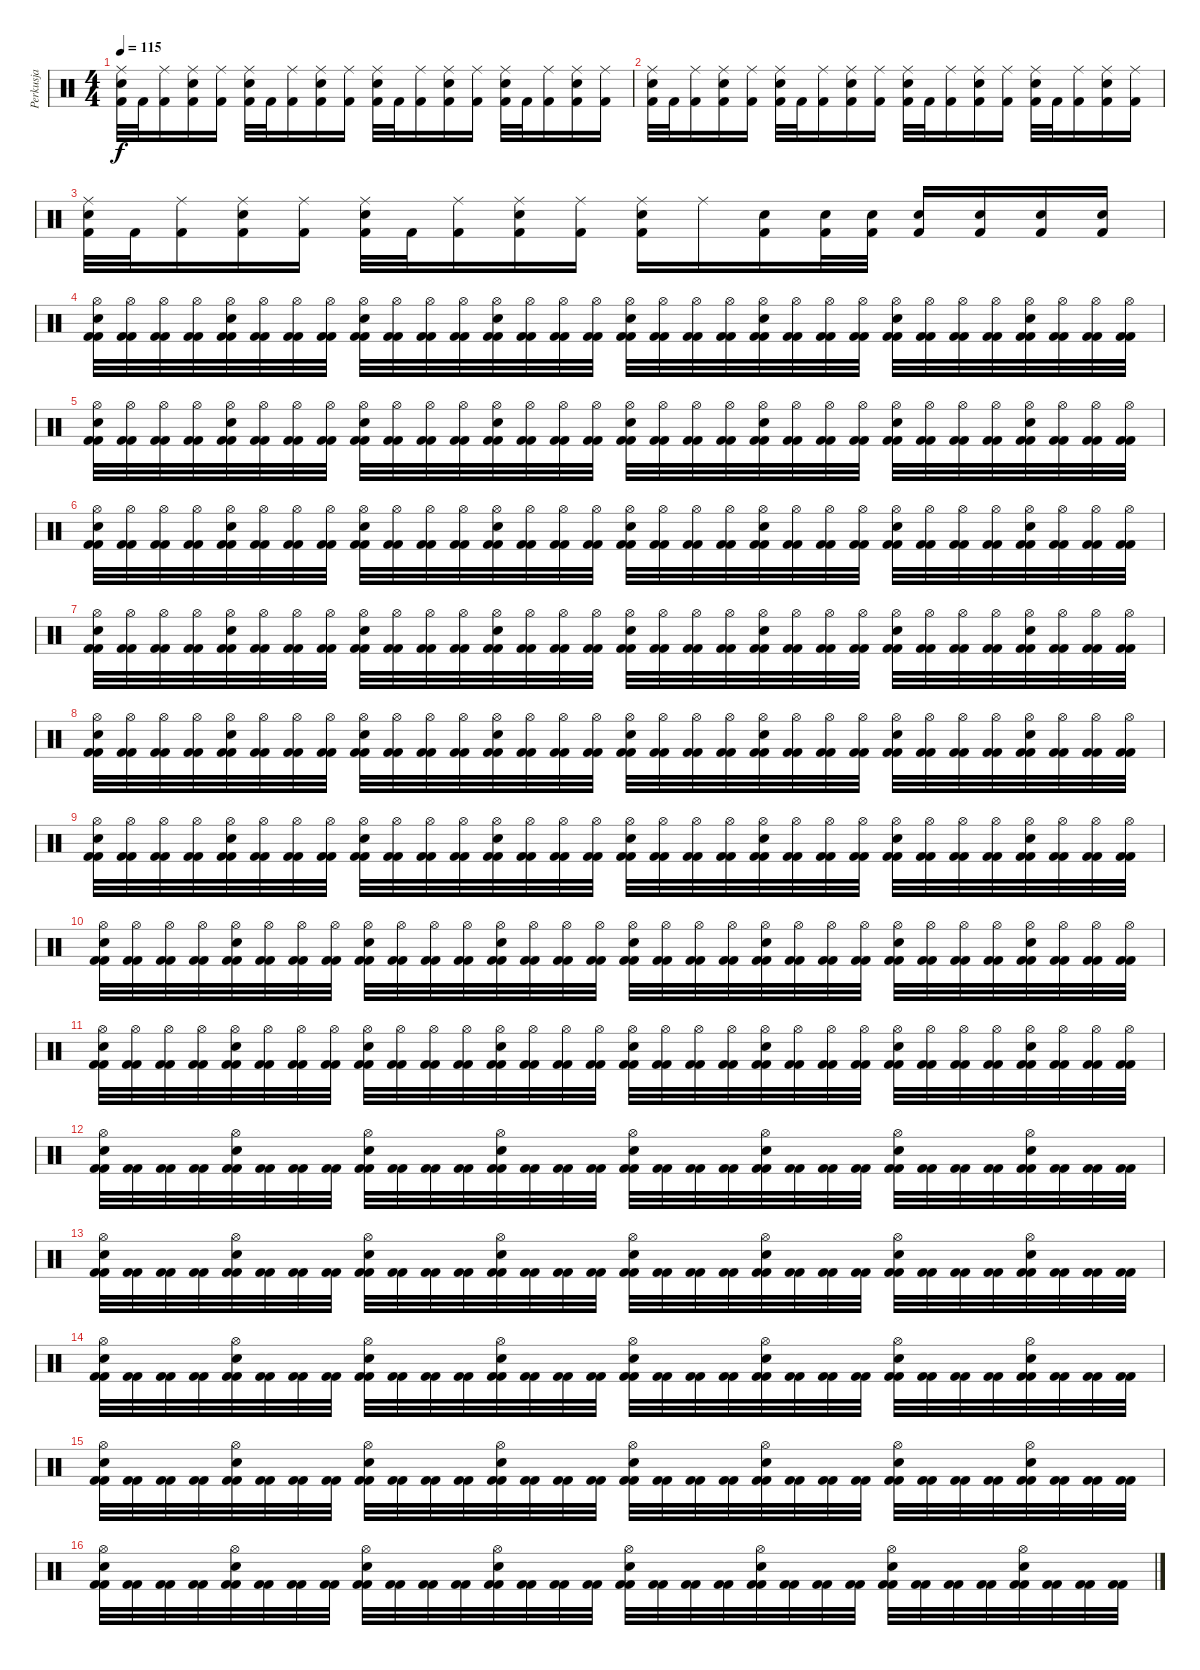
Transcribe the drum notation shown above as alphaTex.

\track ("Perkusja" "Perkusja") {instrument percussion}
\staff {score}
\articulation defaults
\ts (4 4)
\tempo 115
\clef neutral
\ks c
("Ride (middle)" "Electric Snare (hit)" "Kick (hit) 2").32{dy f} "Kick (hit) 2".32 ("Ride (middle)" "Kick (hit) 2").16 ("Ride (middle)" "Electric Snare (hit)" "Kick (hit) 2").16 ("Ride (middle)" "Kick (hit) 2").16 ("Ride (middle)" "Electric Snare (hit)" "Kick (hit) 2").32 "Kick (hit) 2".32 ("Ride (middle)" "Kick (hit) 2").16 ("Ride (middle)" "Electric Snare (hit)" "Kick (hit) 2").16 ("Ride (middle)" "Kick (hit) 2").16 ("Ride (middle)" "Electric Snare (hit)" "Kick (hit) 2").32 "Kick (hit) 2".32 ("Ride (middle)" "Kick (hit) 2").16 ("Ride (middle)" "Electric Snare (hit)" "Kick (hit) 2").16 ("Ride (middle)" "Kick (hit) 2").16 ("Ride (middle)" "Electric Snare (hit)" "Kick (hit) 2").32 "Kick (hit) 2".32 ("Ride (middle)" "Kick (hit) 2").16 ("Ride (middle)" "Electric Snare (hit)" "Kick (hit) 2").16 ("Ride (middle)" "Kick (hit) 2").16 |
("Ride (middle)" "Electric Snare (hit)" "Kick (hit) 2").32 "Kick (hit) 2".32 ("Ride (middle)" "Kick (hit) 2").16 ("Ride (middle)" "Electric Snare (hit)" "Kick (hit) 2").16 ("Ride (middle)" "Kick (hit) 2").16 ("Ride (middle)" "Electric Snare (hit)" "Kick (hit) 2").32 "Kick (hit) 2".32 ("Ride (middle)" "Kick (hit) 2").16 ("Ride (middle)" "Electric Snare (hit)" "Kick (hit) 2").16 ("Ride (middle)" "Kick (hit) 2").16 ("Ride (middle)" "Electric Snare (hit)" "Kick (hit) 2").32 "Kick (hit) 2".32 ("Ride (middle)" "Kick (hit) 2").16 ("Ride (middle)" "Electric Snare (hit)" "Kick (hit) 2").16 ("Ride (middle)" "Kick (hit) 2").16 ("Ride (middle)" "Electric Snare (hit)" "Kick (hit) 2").32 "Kick (hit) 2".32 ("Ride (middle)" "Kick (hit) 2").16 ("Ride (middle)" "Electric Snare (hit)" "Kick (hit) 2").16 ("Ride (middle)" "Kick (hit) 2").16 |
("Ride (middle)" "Electric Snare (hit)" "Kick (hit) 2").32 "Kick (hit) 2".32 ("Ride (middle)" "Kick (hit) 2").16 ("Ride (middle)" "Electric Snare (hit)" "Kick (hit) 2").16 ("Ride (middle)" "Kick (hit) 2").16 ("Ride (middle)" "Electric Snare (hit)" "Kick (hit) 2").32 "Kick (hit) 2".32 ("Ride (middle)" "Kick (hit) 2").16 ("Ride (middle)" "Electric Snare (hit)" "Kick (hit) 2").16 ("Ride (middle)" "Kick (hit) 2").16 ("Ride (middle)" "Electric Snare (hit)" "Kick (hit) 2").16 "Ride (middle)".16 ("Electric Snare (hit)" "Kick (hit) 2").16 ("Electric Snare (hit)" "Kick (hit) 2").32 ("Electric Snare (hit)" "Kick (hit) 2").32 ("Electric Snare (hit)" "Kick (hit) 2").16 ("Electric Snare (hit)" "Kick (hit) 2").16 ("Electric Snare (hit)" "Kick (hit) 2").16 ("Electric Snare (hit)" "Kick (hit) 2").16 |
("Hi-Hat (open)" "Electric Snare (hit)" "Kick (hit) 2" "Kick (hit) 2").32 ("Hi-Hat (open)" "Kick (hit) 2" "Kick (hit) 2").32 ("Hi-Hat (open)" "Kick (hit) 2" "Kick (hit) 2").32 ("Hi-Hat (open)" "Kick (hit) 2" "Kick (hit) 2").32 ("Hi-Hat (open)" "Electric Snare (hit)" "Kick (hit) 2" "Kick (hit) 2").32 ("Hi-Hat (open)" "Kick (hit) 2" "Kick (hit) 2").32 ("Hi-Hat (open)" "Kick (hit) 2" "Kick (hit) 2").32 ("Hi-Hat (open)" "Kick (hit) 2" "Kick (hit) 2").32 ("Hi-Hat (open)" "Electric Snare (hit)" "Kick (hit) 2" "Kick (hit) 2").32 ("Hi-Hat (open)" "Kick (hit) 2" "Kick (hit) 2").32 ("Hi-Hat (open)" "Kick (hit) 2" "Kick (hit) 2").32 ("Hi-Hat (open)" "Kick (hit) 2" "Kick (hit) 2").32 ("Hi-Hat (open)" "Electric Snare (hit)" "Kick (hit) 2" "Kick (hit) 2").32 ("Hi-Hat (open)" "Kick (hit) 2" "Kick (hit) 2").32 ("Hi-Hat (open)" "Kick (hit) 2" "Kick (hit) 2").32 ("Hi-Hat (open)" "Kick (hit) 2" "Kick (hit) 2").32 ("Hi-Hat (open)" "Electric Snare (hit)" "Kick (hit) 2" "Kick (hit) 2").32 ("Hi-Hat (open)" "Kick (hit) 2" "Kick (hit) 2").32 ("Hi-Hat (open)" "Kick (hit) 2" "Kick (hit) 2").32 ("Hi-Hat (open)" "Kick (hit) 2" "Kick (hit) 2").32 ("Hi-Hat (open)" "Electric Snare (hit)" "Kick (hit) 2" "Kick (hit) 2").32 ("Hi-Hat (open)" "Kick (hit) 2" "Kick (hit) 2").32 ("Hi-Hat (open)" "Kick (hit) 2" "Kick (hit) 2").32 ("Hi-Hat (open)" "Kick (hit) 2" "Kick (hit) 2").32 ("Hi-Hat (open)" "Electric Snare (hit)" "Kick (hit) 2" "Kick (hit) 2").32 ("Hi-Hat (open)" "Kick (hit) 2" "Kick (hit) 2").32 ("Hi-Hat (open)" "Kick (hit) 2" "Kick (hit) 2").32 ("Hi-Hat (open)" "Kick (hit) 2" "Kick (hit) 2").32 ("Hi-Hat (open)" "Electric Snare (hit)" "Kick (hit) 2" "Kick (hit) 2").32 ("Hi-Hat (open)" "Kick (hit) 2" "Kick (hit) 2").32 ("Hi-Hat (open)" "Kick (hit) 2" "Kick (hit) 2").32 ("Hi-Hat (open)" "Kick (hit) 2" "Kick (hit) 2").32 |
("Hi-Hat (open)" "Electric Snare (hit)" "Kick (hit) 2" "Kick (hit) 2").32 ("Hi-Hat (open)" "Kick (hit) 2" "Kick (hit) 2").32 ("Hi-Hat (open)" "Kick (hit) 2" "Kick (hit) 2").32 ("Hi-Hat (open)" "Kick (hit) 2" "Kick (hit) 2").32 ("Hi-Hat (open)" "Electric Snare (hit)" "Kick (hit) 2" "Kick (hit) 2").32 ("Hi-Hat (open)" "Kick (hit) 2" "Kick (hit) 2").32 ("Hi-Hat (open)" "Kick (hit) 2" "Kick (hit) 2").32 ("Hi-Hat (open)" "Kick (hit) 2" "Kick (hit) 2").32 ("Hi-Hat (open)" "Electric Snare (hit)" "Kick (hit) 2" "Kick (hit) 2").32 ("Hi-Hat (open)" "Kick (hit) 2" "Kick (hit) 2").32 ("Hi-Hat (open)" "Kick (hit) 2" "Kick (hit) 2").32 ("Hi-Hat (open)" "Kick (hit) 2" "Kick (hit) 2").32 ("Hi-Hat (open)" "Electric Snare (hit)" "Kick (hit) 2" "Kick (hit) 2").32 ("Hi-Hat (open)" "Kick (hit) 2" "Kick (hit) 2").32 ("Hi-Hat (open)" "Kick (hit) 2" "Kick (hit) 2").32 ("Hi-Hat (open)" "Kick (hit) 2" "Kick (hit) 2").32 ("Hi-Hat (open)" "Electric Snare (hit)" "Kick (hit) 2" "Kick (hit) 2").32 ("Hi-Hat (open)" "Kick (hit) 2" "Kick (hit) 2").32 ("Hi-Hat (open)" "Kick (hit) 2" "Kick (hit) 2").32 ("Hi-Hat (open)" "Kick (hit) 2" "Kick (hit) 2").32 ("Hi-Hat (open)" "Electric Snare (hit)" "Kick (hit) 2" "Kick (hit) 2").32 ("Hi-Hat (open)" "Kick (hit) 2" "Kick (hit) 2").32 ("Hi-Hat (open)" "Kick (hit) 2" "Kick (hit) 2").32 ("Hi-Hat (open)" "Kick (hit) 2" "Kick (hit) 2").32 ("Hi-Hat (open)" "Electric Snare (hit)" "Kick (hit) 2" "Kick (hit) 2").32 ("Hi-Hat (open)" "Kick (hit) 2" "Kick (hit) 2").32 ("Hi-Hat (open)" "Kick (hit) 2" "Kick (hit) 2").32 ("Hi-Hat (open)" "Kick (hit) 2" "Kick (hit) 2").32 ("Hi-Hat (open)" "Electric Snare (hit)" "Kick (hit) 2" "Kick (hit) 2").32 ("Hi-Hat (open)" "Kick (hit) 2" "Kick (hit) 2").32 ("Hi-Hat (open)" "Kick (hit) 2" "Kick (hit) 2").32 ("Hi-Hat (open)" "Kick (hit) 2" "Kick (hit) 2").32 |
("Hi-Hat (open)" "Electric Snare (hit)" "Kick (hit) 2" "Kick (hit) 2").32 ("Hi-Hat (open)" "Kick (hit) 2" "Kick (hit) 2").32 ("Hi-Hat (open)" "Kick (hit) 2" "Kick (hit) 2").32 ("Hi-Hat (open)" "Kick (hit) 2" "Kick (hit) 2").32 ("Hi-Hat (open)" "Electric Snare (hit)" "Kick (hit) 2" "Kick (hit) 2").32 ("Hi-Hat (open)" "Kick (hit) 2" "Kick (hit) 2").32 ("Hi-Hat (open)" "Kick (hit) 2" "Kick (hit) 2").32 ("Hi-Hat (open)" "Kick (hit) 2" "Kick (hit) 2").32 ("Hi-Hat (open)" "Electric Snare (hit)" "Kick (hit) 2" "Kick (hit) 2").32 ("Hi-Hat (open)" "Kick (hit) 2" "Kick (hit) 2").32 ("Hi-Hat (open)" "Kick (hit) 2" "Kick (hit) 2").32 ("Hi-Hat (open)" "Kick (hit) 2" "Kick (hit) 2").32 ("Hi-Hat (open)" "Electric Snare (hit)" "Kick (hit) 2" "Kick (hit) 2").32 ("Hi-Hat (open)" "Kick (hit) 2" "Kick (hit) 2").32 ("Hi-Hat (open)" "Kick (hit) 2" "Kick (hit) 2").32 ("Hi-Hat (open)" "Kick (hit) 2" "Kick (hit) 2").32 ("Hi-Hat (open)" "Electric Snare (hit)" "Kick (hit) 2" "Kick (hit) 2").32 ("Hi-Hat (open)" "Kick (hit) 2" "Kick (hit) 2").32 ("Hi-Hat (open)" "Kick (hit) 2" "Kick (hit) 2").32 ("Hi-Hat (open)" "Kick (hit) 2" "Kick (hit) 2").32 ("Hi-Hat (open)" "Electric Snare (hit)" "Kick (hit) 2" "Kick (hit) 2").32 ("Hi-Hat (open)" "Kick (hit) 2" "Kick (hit) 2").32 ("Hi-Hat (open)" "Kick (hit) 2" "Kick (hit) 2").32 ("Hi-Hat (open)" "Kick (hit) 2" "Kick (hit) 2").32 ("Hi-Hat (open)" "Electric Snare (hit)" "Kick (hit) 2" "Kick (hit) 2").32 ("Hi-Hat (open)" "Kick (hit) 2" "Kick (hit) 2").32 ("Hi-Hat (open)" "Kick (hit) 2" "Kick (hit) 2").32 ("Hi-Hat (open)" "Kick (hit) 2" "Kick (hit) 2").32 ("Hi-Hat (open)" "Electric Snare (hit)" "Kick (hit) 2" "Kick (hit) 2").32 ("Hi-Hat (open)" "Kick (hit) 2" "Kick (hit) 2").32 ("Hi-Hat (open)" "Kick (hit) 2" "Kick (hit) 2").32 ("Hi-Hat (open)" "Kick (hit) 2" "Kick (hit) 2").32 |
("Hi-Hat (open)" "Electric Snare (hit)" "Kick (hit) 2" "Kick (hit) 2").32 ("Hi-Hat (open)" "Kick (hit) 2" "Kick (hit) 2").32 ("Hi-Hat (open)" "Kick (hit) 2" "Kick (hit) 2").32 ("Hi-Hat (open)" "Kick (hit) 2" "Kick (hit) 2").32 ("Hi-Hat (open)" "Electric Snare (hit)" "Kick (hit) 2" "Kick (hit) 2").32 ("Hi-Hat (open)" "Kick (hit) 2" "Kick (hit) 2").32 ("Hi-Hat (open)" "Kick (hit) 2" "Kick (hit) 2").32 ("Hi-Hat (open)" "Kick (hit) 2" "Kick (hit) 2").32 ("Hi-Hat (open)" "Electric Snare (hit)" "Kick (hit) 2" "Kick (hit) 2").32 ("Hi-Hat (open)" "Kick (hit) 2" "Kick (hit) 2").32 ("Hi-Hat (open)" "Kick (hit) 2" "Kick (hit) 2").32 ("Hi-Hat (open)" "Kick (hit) 2" "Kick (hit) 2").32 ("Hi-Hat (open)" "Electric Snare (hit)" "Kick (hit) 2" "Kick (hit) 2").32 ("Hi-Hat (open)" "Kick (hit) 2" "Kick (hit) 2").32 ("Hi-Hat (open)" "Kick (hit) 2" "Kick (hit) 2").32 ("Hi-Hat (open)" "Kick (hit) 2" "Kick (hit) 2").32 ("Hi-Hat (open)" "Electric Snare (hit)" "Kick (hit) 2" "Kick (hit) 2").32 ("Hi-Hat (open)" "Kick (hit) 2" "Kick (hit) 2").32 ("Hi-Hat (open)" "Kick (hit) 2" "Kick (hit) 2").32 ("Hi-Hat (open)" "Kick (hit) 2" "Kick (hit) 2").32 ("Hi-Hat (open)" "Electric Snare (hit)" "Kick (hit) 2" "Kick (hit) 2").32 ("Hi-Hat (open)" "Kick (hit) 2" "Kick (hit) 2").32 ("Hi-Hat (open)" "Kick (hit) 2" "Kick (hit) 2").32 ("Hi-Hat (open)" "Kick (hit) 2" "Kick (hit) 2").32 ("Hi-Hat (open)" "Electric Snare (hit)" "Kick (hit) 2" "Kick (hit) 2").32 ("Hi-Hat (open)" "Kick (hit) 2" "Kick (hit) 2").32 ("Hi-Hat (open)" "Kick (hit) 2" "Kick (hit) 2").32 ("Hi-Hat (open)" "Kick (hit) 2" "Kick (hit) 2").32 ("Hi-Hat (open)" "Electric Snare (hit)" "Kick (hit) 2" "Kick (hit) 2").32 ("Hi-Hat (open)" "Kick (hit) 2" "Kick (hit) 2").32 ("Hi-Hat (open)" "Kick (hit) 2" "Kick (hit) 2").32 ("Hi-Hat (open)" "Kick (hit) 2" "Kick (hit) 2").32 |
("Hi-Hat (open)" "Electric Snare (hit)" "Kick (hit) 2" "Kick (hit) 2").32 ("Hi-Hat (open)" "Kick (hit) 2" "Kick (hit) 2").32 ("Hi-Hat (open)" "Kick (hit) 2" "Kick (hit) 2").32 ("Hi-Hat (open)" "Kick (hit) 2" "Kick (hit) 2").32 ("Hi-Hat (open)" "Electric Snare (hit)" "Kick (hit) 2" "Kick (hit) 2").32 ("Hi-Hat (open)" "Kick (hit) 2" "Kick (hit) 2").32 ("Hi-Hat (open)" "Kick (hit) 2" "Kick (hit) 2").32 ("Hi-Hat (open)" "Kick (hit) 2" "Kick (hit) 2").32 ("Hi-Hat (open)" "Electric Snare (hit)" "Kick (hit) 2" "Kick (hit) 2").32 ("Hi-Hat (open)" "Kick (hit) 2" "Kick (hit) 2").32 ("Hi-Hat (open)" "Kick (hit) 2" "Kick (hit) 2").32 ("Hi-Hat (open)" "Kick (hit) 2" "Kick (hit) 2").32 ("Hi-Hat (open)" "Electric Snare (hit)" "Kick (hit) 2" "Kick (hit) 2").32 ("Hi-Hat (open)" "Kick (hit) 2" "Kick (hit) 2").32 ("Hi-Hat (open)" "Kick (hit) 2" "Kick (hit) 2").32 ("Hi-Hat (open)" "Kick (hit) 2" "Kick (hit) 2").32 ("Hi-Hat (open)" "Electric Snare (hit)" "Kick (hit) 2" "Kick (hit) 2").32 ("Hi-Hat (open)" "Kick (hit) 2" "Kick (hit) 2").32 ("Hi-Hat (open)" "Kick (hit) 2" "Kick (hit) 2").32 ("Hi-Hat (open)" "Kick (hit) 2" "Kick (hit) 2").32 ("Hi-Hat (open)" "Electric Snare (hit)" "Kick (hit) 2" "Kick (hit) 2").32 ("Hi-Hat (open)" "Kick (hit) 2" "Kick (hit) 2").32 ("Hi-Hat (open)" "Kick (hit) 2" "Kick (hit) 2").32 ("Hi-Hat (open)" "Kick (hit) 2" "Kick (hit) 2").32 ("Hi-Hat (open)" "Electric Snare (hit)" "Kick (hit) 2" "Kick (hit) 2").32 ("Hi-Hat (open)" "Kick (hit) 2" "Kick (hit) 2").32 ("Hi-Hat (open)" "Kick (hit) 2" "Kick (hit) 2").32 ("Hi-Hat (open)" "Kick (hit) 2" "Kick (hit) 2").32 ("Hi-Hat (open)" "Electric Snare (hit)" "Kick (hit) 2" "Kick (hit) 2").32 ("Hi-Hat (open)" "Kick (hit) 2" "Kick (hit) 2").32 ("Hi-Hat (open)" "Kick (hit) 2" "Kick (hit) 2").32 ("Hi-Hat (open)" "Kick (hit) 2" "Kick (hit) 2").32 |
("Hi-Hat (open)" "Electric Snare (hit)" "Kick (hit) 2" "Kick (hit) 2").32 ("Hi-Hat (open)" "Kick (hit) 2" "Kick (hit) 2").32 ("Hi-Hat (open)" "Kick (hit) 2" "Kick (hit) 2").32 ("Hi-Hat (open)" "Kick (hit) 2" "Kick (hit) 2").32 ("Hi-Hat (open)" "Electric Snare (hit)" "Kick (hit) 2" "Kick (hit) 2").32 ("Hi-Hat (open)" "Kick (hit) 2" "Kick (hit) 2").32 ("Hi-Hat (open)" "Kick (hit) 2" "Kick (hit) 2").32 ("Hi-Hat (open)" "Kick (hit) 2" "Kick (hit) 2").32 ("Hi-Hat (open)" "Electric Snare (hit)" "Kick (hit) 2" "Kick (hit) 2").32 ("Hi-Hat (open)" "Kick (hit) 2" "Kick (hit) 2").32 ("Hi-Hat (open)" "Kick (hit) 2" "Kick (hit) 2").32 ("Hi-Hat (open)" "Kick (hit) 2" "Kick (hit) 2").32 ("Hi-Hat (open)" "Electric Snare (hit)" "Kick (hit) 2" "Kick (hit) 2").32 ("Hi-Hat (open)" "Kick (hit) 2" "Kick (hit) 2").32 ("Hi-Hat (open)" "Kick (hit) 2" "Kick (hit) 2").32 ("Hi-Hat (open)" "Kick (hit) 2" "Kick (hit) 2").32 ("Hi-Hat (open)" "Electric Snare (hit)" "Kick (hit) 2" "Kick (hit) 2").32 ("Hi-Hat (open)" "Kick (hit) 2" "Kick (hit) 2").32 ("Hi-Hat (open)" "Kick (hit) 2" "Kick (hit) 2").32 ("Hi-Hat (open)" "Kick (hit) 2" "Kick (hit) 2").32 ("Hi-Hat (open)" "Electric Snare (hit)" "Kick (hit) 2" "Kick (hit) 2").32 ("Hi-Hat (open)" "Kick (hit) 2" "Kick (hit) 2").32 ("Hi-Hat (open)" "Kick (hit) 2" "Kick (hit) 2").32 ("Hi-Hat (open)" "Kick (hit) 2" "Kick (hit) 2").32 ("Hi-Hat (open)" "Electric Snare (hit)" "Kick (hit) 2" "Kick (hit) 2").32 ("Hi-Hat (open)" "Kick (hit) 2" "Kick (hit) 2").32 ("Hi-Hat (open)" "Kick (hit) 2" "Kick (hit) 2").32 ("Hi-Hat (open)" "Kick (hit) 2" "Kick (hit) 2").32 ("Hi-Hat (open)" "Electric Snare (hit)" "Kick (hit) 2" "Kick (hit) 2").32 ("Hi-Hat (open)" "Kick (hit) 2" "Kick (hit) 2").32 ("Hi-Hat (open)" "Kick (hit) 2" "Kick (hit) 2").32 ("Hi-Hat (open)" "Kick (hit) 2" "Kick (hit) 2").32 |
("Hi-Hat (open)" "Electric Snare (hit)" "Kick (hit) 2" "Kick (hit) 2").32 ("Hi-Hat (open)" "Kick (hit) 2" "Kick (hit) 2").32 ("Hi-Hat (open)" "Kick (hit) 2" "Kick (hit) 2").32 ("Hi-Hat (open)" "Kick (hit) 2" "Kick (hit) 2").32 ("Hi-Hat (open)" "Electric Snare (hit)" "Kick (hit) 2" "Kick (hit) 2").32 ("Hi-Hat (open)" "Kick (hit) 2" "Kick (hit) 2").32 ("Hi-Hat (open)" "Kick (hit) 2" "Kick (hit) 2").32 ("Hi-Hat (open)" "Kick (hit) 2" "Kick (hit) 2").32 ("Hi-Hat (open)" "Electric Snare (hit)" "Kick (hit) 2" "Kick (hit) 2").32 ("Hi-Hat (open)" "Kick (hit) 2" "Kick (hit) 2").32 ("Hi-Hat (open)" "Kick (hit) 2" "Kick (hit) 2").32 ("Hi-Hat (open)" "Kick (hit) 2" "Kick (hit) 2").32 ("Hi-Hat (open)" "Electric Snare (hit)" "Kick (hit) 2" "Kick (hit) 2").32 ("Hi-Hat (open)" "Kick (hit) 2" "Kick (hit) 2").32 ("Hi-Hat (open)" "Kick (hit) 2" "Kick (hit) 2").32 ("Hi-Hat (open)" "Kick (hit) 2" "Kick (hit) 2").32 ("Hi-Hat (open)" "Electric Snare (hit)" "Kick (hit) 2" "Kick (hit) 2").32 ("Hi-Hat (open)" "Kick (hit) 2" "Kick (hit) 2").32 ("Hi-Hat (open)" "Kick (hit) 2" "Kick (hit) 2").32 ("Hi-Hat (open)" "Kick (hit) 2" "Kick (hit) 2").32 ("Hi-Hat (open)" "Electric Snare (hit)" "Kick (hit) 2" "Kick (hit) 2").32 ("Hi-Hat (open)" "Kick (hit) 2" "Kick (hit) 2").32 ("Hi-Hat (open)" "Kick (hit) 2" "Kick (hit) 2").32 ("Hi-Hat (open)" "Kick (hit) 2" "Kick (hit) 2").32 ("Hi-Hat (open)" "Electric Snare (hit)" "Kick (hit) 2" "Kick (hit) 2").32 ("Hi-Hat (open)" "Kick (hit) 2" "Kick (hit) 2").32 ("Hi-Hat (open)" "Kick (hit) 2" "Kick (hit) 2").32 ("Hi-Hat (open)" "Kick (hit) 2" "Kick (hit) 2").32 ("Hi-Hat (open)" "Electric Snare (hit)" "Kick (hit) 2" "Kick (hit) 2").32 ("Hi-Hat (open)" "Kick (hit) 2" "Kick (hit) 2").32 ("Hi-Hat (open)" "Kick (hit) 2" "Kick (hit) 2").32 ("Hi-Hat (open)" "Kick (hit) 2" "Kick (hit) 2").32 |
("Hi-Hat (open)" "Electric Snare (hit)" "Kick (hit) 2" "Kick (hit) 2").32 ("Hi-Hat (open)" "Kick (hit) 2" "Kick (hit) 2").32 ("Hi-Hat (open)" "Kick (hit) 2" "Kick (hit) 2").32 ("Hi-Hat (open)" "Kick (hit) 2" "Kick (hit) 2").32 ("Hi-Hat (open)" "Electric Snare (hit)" "Kick (hit) 2" "Kick (hit) 2").32 ("Hi-Hat (open)" "Kick (hit) 2" "Kick (hit) 2").32 ("Hi-Hat (open)" "Kick (hit) 2" "Kick (hit) 2").32 ("Hi-Hat (open)" "Kick (hit) 2" "Kick (hit) 2").32 ("Hi-Hat (open)" "Electric Snare (hit)" "Kick (hit) 2" "Kick (hit) 2").32 ("Hi-Hat (open)" "Kick (hit) 2" "Kick (hit) 2").32 ("Hi-Hat (open)" "Kick (hit) 2" "Kick (hit) 2").32 ("Hi-Hat (open)" "Kick (hit) 2" "Kick (hit) 2").32 ("Hi-Hat (open)" "Electric Snare (hit)" "Kick (hit) 2" "Kick (hit) 2").32 ("Hi-Hat (open)" "Kick (hit) 2" "Kick (hit) 2").32 ("Hi-Hat (open)" "Kick (hit) 2" "Kick (hit) 2").32 ("Hi-Hat (open)" "Kick (hit) 2" "Kick (hit) 2").32 ("Hi-Hat (open)" "Electric Snare (hit)" "Kick (hit) 2" "Kick (hit) 2").32 ("Hi-Hat (open)" "Kick (hit) 2" "Kick (hit) 2").32 ("Hi-Hat (open)" "Kick (hit) 2" "Kick (hit) 2").32 ("Hi-Hat (open)" "Kick (hit) 2" "Kick (hit) 2").32 ("Hi-Hat (open)" "Electric Snare (hit)" "Kick (hit) 2" "Kick (hit) 2").32 ("Hi-Hat (open)" "Kick (hit) 2" "Kick (hit) 2").32 ("Hi-Hat (open)" "Kick (hit) 2" "Kick (hit) 2").32 ("Hi-Hat (open)" "Kick (hit) 2" "Kick (hit) 2").32 ("Hi-Hat (open)" "Electric Snare (hit)" "Kick (hit) 2" "Kick (hit) 2").32 ("Hi-Hat (open)" "Kick (hit) 2" "Kick (hit) 2").32 ("Hi-Hat (open)" "Kick (hit) 2" "Kick (hit) 2").32 ("Hi-Hat (open)" "Kick (hit) 2" "Kick (hit) 2").32 ("Hi-Hat (open)" "Electric Snare (hit)" "Kick (hit) 2" "Kick (hit) 2").32 ("Hi-Hat (open)" "Kick (hit) 2" "Kick (hit) 2").32 ("Hi-Hat (open)" "Kick (hit) 2" "Kick (hit) 2").32 ("Hi-Hat (open)" "Kick (hit) 2" "Kick (hit) 2").32 |
("Hi-Hat (open)" "Electric Snare (hit)" "Kick (hit) 2" "Kick (hit) 2").32 ("Kick (hit) 2" "Kick (hit) 2").32 ("Kick (hit) 2" "Kick (hit) 2").32 ("Kick (hit) 2" "Kick (hit) 2").32 ("Hi-Hat (open)" "Electric Snare (hit)" "Kick (hit) 2" "Kick (hit) 2").32 ("Kick (hit) 2" "Kick (hit) 2").32 ("Kick (hit) 2" "Kick (hit) 2").32 ("Kick (hit) 2" "Kick (hit) 2").32 ("Hi-Hat (open)" "Electric Snare (hit)" "Kick (hit) 2" "Kick (hit) 2").32 ("Kick (hit) 2" "Kick (hit) 2").32 ("Kick (hit) 2" "Kick (hit) 2").32 ("Kick (hit) 2" "Kick (hit) 2").32 ("Hi-Hat (open)" "Electric Snare (hit)" "Kick (hit) 2" "Kick (hit) 2").32 ("Kick (hit) 2" "Kick (hit) 2").32 ("Kick (hit) 2" "Kick (hit) 2").32 ("Kick (hit) 2" "Kick (hit) 2").32 ("Hi-Hat (open)" "Electric Snare (hit)" "Kick (hit) 2" "Kick (hit) 2").32 ("Kick (hit) 2" "Kick (hit) 2").32 ("Kick (hit) 2" "Kick (hit) 2").32 ("Kick (hit) 2" "Kick (hit) 2").32 ("Hi-Hat (open)" "Electric Snare (hit)" "Kick (hit) 2" "Kick (hit) 2").32 ("Kick (hit) 2" "Kick (hit) 2").32 ("Kick (hit) 2" "Kick (hit) 2").32 ("Kick (hit) 2" "Kick (hit) 2").32 ("Hi-Hat (open)" "Electric Snare (hit)" "Kick (hit) 2" "Kick (hit) 2").32 ("Kick (hit) 2" "Kick (hit) 2").32 ("Kick (hit) 2" "Kick (hit) 2").32 ("Kick (hit) 2" "Kick (hit) 2").32 ("Hi-Hat (open)" "Electric Snare (hit)" "Kick (hit) 2" "Kick (hit) 2").32 ("Kick (hit) 2" "Kick (hit) 2").32 ("Kick (hit) 2" "Kick (hit) 2").32 ("Kick (hit) 2" "Kick (hit) 2").32 |
("Hi-Hat (open)" "Electric Snare (hit)" "Kick (hit) 2" "Kick (hit) 2").32 ("Kick (hit) 2" "Kick (hit) 2").32 ("Kick (hit) 2" "Kick (hit) 2").32 ("Kick (hit) 2" "Kick (hit) 2").32 ("Hi-Hat (open)" "Electric Snare (hit)" "Kick (hit) 2" "Kick (hit) 2").32 ("Kick (hit) 2" "Kick (hit) 2").32 ("Kick (hit) 2" "Kick (hit) 2").32 ("Kick (hit) 2" "Kick (hit) 2").32 ("Hi-Hat (open)" "Electric Snare (hit)" "Kick (hit) 2" "Kick (hit) 2").32 ("Kick (hit) 2" "Kick (hit) 2").32 ("Kick (hit) 2" "Kick (hit) 2").32 ("Kick (hit) 2" "Kick (hit) 2").32 ("Hi-Hat (open)" "Electric Snare (hit)" "Kick (hit) 2" "Kick (hit) 2").32 ("Kick (hit) 2" "Kick (hit) 2").32 ("Kick (hit) 2" "Kick (hit) 2").32 ("Kick (hit) 2" "Kick (hit) 2").32 ("Hi-Hat (open)" "Electric Snare (hit)" "Kick (hit) 2" "Kick (hit) 2").32 ("Kick (hit) 2" "Kick (hit) 2").32 ("Kick (hit) 2" "Kick (hit) 2").32 ("Kick (hit) 2" "Kick (hit) 2").32 ("Hi-Hat (open)" "Electric Snare (hit)" "Kick (hit) 2" "Kick (hit) 2").32 ("Kick (hit) 2" "Kick (hit) 2").32 ("Kick (hit) 2" "Kick (hit) 2").32 ("Kick (hit) 2" "Kick (hit) 2").32 ("Hi-Hat (open)" "Electric Snare (hit)" "Kick (hit) 2" "Kick (hit) 2").32 ("Kick (hit) 2" "Kick (hit) 2").32 ("Kick (hit) 2" "Kick (hit) 2").32 ("Kick (hit) 2" "Kick (hit) 2").32 ("Hi-Hat (open)" "Electric Snare (hit)" "Kick (hit) 2" "Kick (hit) 2").32 ("Kick (hit) 2" "Kick (hit) 2").32 ("Kick (hit) 2" "Kick (hit) 2").32 ("Kick (hit) 2" "Kick (hit) 2").32 |
("Hi-Hat (open)" "Electric Snare (hit)" "Kick (hit) 2" "Kick (hit) 2").32 ("Kick (hit) 2" "Kick (hit) 2").32 ("Kick (hit) 2" "Kick (hit) 2").32 ("Kick (hit) 2" "Kick (hit) 2").32 ("Hi-Hat (open)" "Electric Snare (hit)" "Kick (hit) 2" "Kick (hit) 2").32 ("Kick (hit) 2" "Kick (hit) 2").32 ("Kick (hit) 2" "Kick (hit) 2").32 ("Kick (hit) 2" "Kick (hit) 2").32 ("Hi-Hat (open)" "Electric Snare (hit)" "Kick (hit) 2" "Kick (hit) 2").32 ("Kick (hit) 2" "Kick (hit) 2").32 ("Kick (hit) 2" "Kick (hit) 2").32 ("Kick (hit) 2" "Kick (hit) 2").32 ("Hi-Hat (open)" "Electric Snare (hit)" "Kick (hit) 2" "Kick (hit) 2").32 ("Kick (hit) 2" "Kick (hit) 2").32 ("Kick (hit) 2" "Kick (hit) 2").32 ("Kick (hit) 2" "Kick (hit) 2").32 ("Hi-Hat (open)" "Electric Snare (hit)" "Kick (hit) 2" "Kick (hit) 2").32 ("Kick (hit) 2" "Kick (hit) 2").32 ("Kick (hit) 2" "Kick (hit) 2").32 ("Kick (hit) 2" "Kick (hit) 2").32 ("Hi-Hat (open)" "Electric Snare (hit)" "Kick (hit) 2" "Kick (hit) 2").32 ("Kick (hit) 2" "Kick (hit) 2").32 ("Kick (hit) 2" "Kick (hit) 2").32 ("Kick (hit) 2" "Kick (hit) 2").32 ("Hi-Hat (open)" "Electric Snare (hit)" "Kick (hit) 2" "Kick (hit) 2").32 ("Kick (hit) 2" "Kick (hit) 2").32 ("Kick (hit) 2" "Kick (hit) 2").32 ("Kick (hit) 2" "Kick (hit) 2").32 ("Hi-Hat (open)" "Electric Snare (hit)" "Kick (hit) 2" "Kick (hit) 2").32 ("Kick (hit) 2" "Kick (hit) 2").32 ("Kick (hit) 2" "Kick (hit) 2").32 ("Kick (hit) 2" "Kick (hit) 2").32 |
("Hi-Hat (open)" "Electric Snare (hit)" "Kick (hit) 2" "Kick (hit) 2").32 ("Kick (hit) 2" "Kick (hit) 2").32 ("Kick (hit) 2" "Kick (hit) 2").32 ("Kick (hit) 2" "Kick (hit) 2").32 ("Hi-Hat (open)" "Electric Snare (hit)" "Kick (hit) 2" "Kick (hit) 2").32 ("Kick (hit) 2" "Kick (hit) 2").32 ("Kick (hit) 2" "Kick (hit) 2").32 ("Kick (hit) 2" "Kick (hit) 2").32 ("Hi-Hat (open)" "Electric Snare (hit)" "Kick (hit) 2" "Kick (hit) 2").32 ("Kick (hit) 2" "Kick (hit) 2").32 ("Kick (hit) 2" "Kick (hit) 2").32 ("Kick (hit) 2" "Kick (hit) 2").32 ("Hi-Hat (open)" "Electric Snare (hit)" "Kick (hit) 2" "Kick (hit) 2").32 ("Kick (hit) 2" "Kick (hit) 2").32 ("Kick (hit) 2" "Kick (hit) 2").32 ("Kick (hit) 2" "Kick (hit) 2").32 ("Hi-Hat (open)" "Electric Snare (hit)" "Kick (hit) 2" "Kick (hit) 2").32 ("Kick (hit) 2" "Kick (hit) 2").32 ("Kick (hit) 2" "Kick (hit) 2").32 ("Kick (hit) 2" "Kick (hit) 2").32 ("Hi-Hat (open)" "Electric Snare (hit)" "Kick (hit) 2" "Kick (hit) 2").32 ("Kick (hit) 2" "Kick (hit) 2").32 ("Kick (hit) 2" "Kick (hit) 2").32 ("Kick (hit) 2" "Kick (hit) 2").32 ("Hi-Hat (open)" "Electric Snare (hit)" "Kick (hit) 2" "Kick (hit) 2").32 ("Kick (hit) 2" "Kick (hit) 2").32 ("Kick (hit) 2" "Kick (hit) 2").32 ("Kick (hit) 2" "Kick (hit) 2").32 ("Hi-Hat (open)" "Electric Snare (hit)" "Kick (hit) 2" "Kick (hit) 2").32 ("Kick (hit) 2" "Kick (hit) 2").32 ("Kick (hit) 2" "Kick (hit) 2").32 ("Kick (hit) 2" "Kick (hit) 2").32 |
("Hi-Hat (open)" "Electric Snare (hit)" "Kick (hit) 2" "Kick (hit) 2").32 ("Kick (hit) 2" "Kick (hit) 2").32 ("Kick (hit) 2" "Kick (hit) 2").32 ("Kick (hit) 2" "Kick (hit) 2").32 ("Hi-Hat (open)" "Electric Snare (hit)" "Kick (hit) 2" "Kick (hit) 2").32 ("Kick (hit) 2" "Kick (hit) 2").32 ("Kick (hit) 2" "Kick (hit) 2").32 ("Kick (hit) 2" "Kick (hit) 2").32 ("Hi-Hat (open)" "Electric Snare (hit)" "Kick (hit) 2" "Kick (hit) 2").32 ("Kick (hit) 2" "Kick (hit) 2").32 ("Kick (hit) 2" "Kick (hit) 2").32 ("Kick (hit) 2" "Kick (hit) 2").32 ("Hi-Hat (open)" "Electric Snare (hit)" "Kick (hit) 2" "Kick (hit) 2").32 ("Kick (hit) 2" "Kick (hit) 2").32 ("Kick (hit) 2" "Kick (hit) 2").32 ("Kick (hit) 2" "Kick (hit) 2").32 ("Hi-Hat (open)" "Electric Snare (hit)" "Kick (hit) 2" "Kick (hit) 2").32 ("Kick (hit) 2" "Kick (hit) 2").32 ("Kick (hit) 2" "Kick (hit) 2").32 ("Kick (hit) 2" "Kick (hit) 2").32 ("Hi-Hat (open)" "Electric Snare (hit)" "Kick (hit) 2" "Kick (hit) 2").32 ("Kick (hit) 2" "Kick (hit) 2").32 ("Kick (hit) 2" "Kick (hit) 2").32 ("Kick (hit) 2" "Kick (hit) 2").32 ("Hi-Hat (open)" "Electric Snare (hit)" "Kick (hit) 2" "Kick (hit) 2").32 ("Kick (hit) 2" "Kick (hit) 2").32 ("Kick (hit) 2" "Kick (hit) 2").32 ("Kick (hit) 2" "Kick (hit) 2").32 ("Hi-Hat (open)" "Electric Snare (hit)" "Kick (hit) 2" "Kick (hit) 2").32 ("Kick (hit) 2" "Kick (hit) 2").32 ("Kick (hit) 2" "Kick (hit) 2").32 ("Kick (hit) 2" "Kick (hit) 2").32
